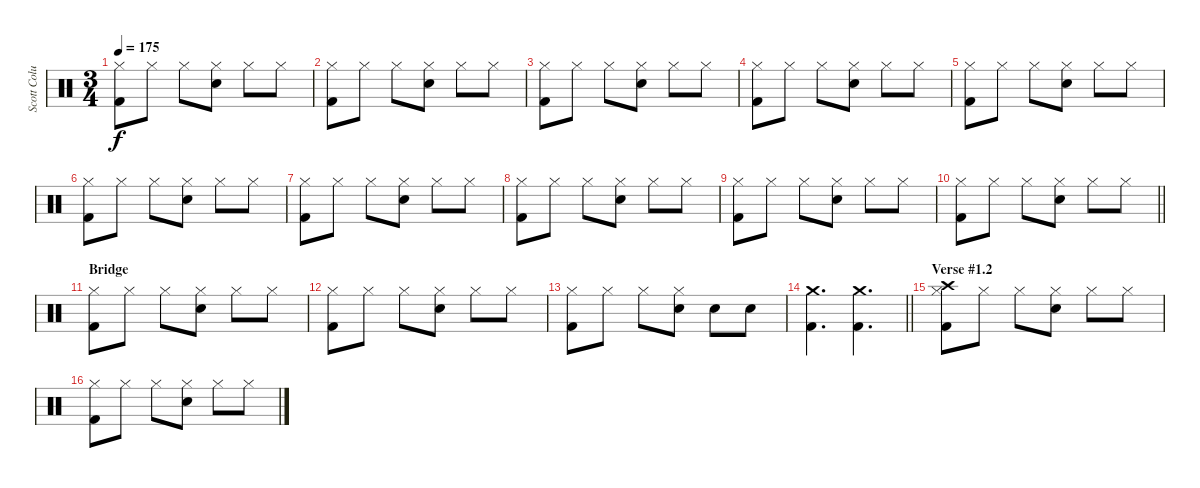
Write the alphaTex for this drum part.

\track ("Scott Columbus" "Scott Colu") {instrument percussion}
\staff {score}
\articulation defaults
\ts (3 4)
\tempo 175
\clef neutral
\ks c
("Kick (hit) 2" "Hi-Hat (closed)").8{dy f} "Hi-Hat (closed)".8 "Hi-Hat (closed)".8 ("Snare (hit) 2" "Hi-Hat (closed)").8 "Hi-Hat (closed)".8 "Hi-Hat (closed)".8 |
("Kick (hit) 2" "Hi-Hat (closed)").8 "Hi-Hat (closed)".8 "Hi-Hat (closed)".8 ("Snare (hit) 2" "Hi-Hat (closed)").8 "Hi-Hat (closed)".8 "Hi-Hat (closed)".8 |
("Kick (hit) 2" "Hi-Hat (closed)").8 "Hi-Hat (closed)".8 "Hi-Hat (closed)".8 ("Snare (hit) 2" "Hi-Hat (closed)").8 "Hi-Hat (closed)".8 "Hi-Hat (closed)".8 |
("Kick (hit) 2" "Hi-Hat (closed)").8 "Hi-Hat (closed)".8 "Hi-Hat (closed)".8 ("Snare (hit) 2" "Hi-Hat (closed)").8 "Hi-Hat (closed)".8 "Hi-Hat (closed)".8 |
("Kick (hit) 2" "Hi-Hat (closed)").8 "Hi-Hat (closed)".8 "Hi-Hat (closed)".8 ("Snare (hit) 2" "Hi-Hat (closed)").8 "Hi-Hat (closed)".8 "Hi-Hat (closed)".8 |
("Kick (hit) 2" "Hi-Hat (closed)").8 "Hi-Hat (closed)".8 "Hi-Hat (closed)".8 ("Snare (hit) 2" "Hi-Hat (closed)").8 "Hi-Hat (closed)".8 "Hi-Hat (closed)".8 |
("Kick (hit) 2" "Hi-Hat (closed)").8 "Hi-Hat (closed)".8 "Hi-Hat (closed)".8 ("Snare (hit) 2" "Hi-Hat (closed)").8 "Hi-Hat (closed)".8 "Hi-Hat (closed)".8 |
("Kick (hit) 2" "Hi-Hat (closed)").8 "Hi-Hat (closed)".8 "Hi-Hat (closed)".8 ("Snare (hit) 2" "Hi-Hat (closed)").8 "Hi-Hat (closed)".8 "Hi-Hat (closed)".8 |
("Kick (hit) 2" "Hi-Hat (closed)").8 "Hi-Hat (closed)".8 "Hi-Hat (closed)".8 ("Snare (hit) 2" "Hi-Hat (closed)").8 "Hi-Hat (closed)".8 "Hi-Hat (closed)".8 |
\barLineRight lightlight
("Kick (hit) 2" "Hi-Hat (closed)").8 "Hi-Hat (closed)".8 "Hi-Hat (closed)".8 ("Snare (hit) 2" "Hi-Hat (closed)").8 "Hi-Hat (closed)".8 "Hi-Hat (closed)".8 |
\section ("" "Bridge")
("Kick (hit) 2" "Hi-Hat (closed)").8 "Hi-Hat (closed)".8 "Hi-Hat (closed)".8 ("Snare (hit) 2" "Hi-Hat (closed)").8 "Hi-Hat (closed)".8 "Hi-Hat (closed)".8 |
("Kick (hit) 2" "Hi-Hat (closed)").8 "Hi-Hat (closed)".8 "Hi-Hat (closed)".8 ("Snare (hit) 2" "Hi-Hat (closed)").8 "Hi-Hat (closed)".8 "Hi-Hat (closed)".8 |
("Kick (hit) 2" "Hi-Hat (closed)").8 "Hi-Hat (closed)".8 "Hi-Hat (closed)".8 ("Snare (hit) 2" "Hi-Hat (closed)").8 "Snare (hit) 2".8 "Snare (hit) 2".8 |
\barLineRight lightlight
("Kick (hit) 2" "Crash medium (hit)").4{d} ("Kick (hit) 2" "Crash medium (hit)").4{d} |
\section ("" "Verse #1.2")
("Kick (hit) 2" "Hi-Hat (closed)" "Crash high (hit)").8 "Hi-Hat (closed)".8 "Hi-Hat (closed)".8 ("Snare (hit) 2" "Hi-Hat (closed)").8 "Hi-Hat (closed)".8 "Hi-Hat (closed)".8 |
("Kick (hit) 2" "Hi-Hat (closed)").8 "Hi-Hat (closed)".8 "Hi-Hat (closed)".8 ("Snare (hit) 2" "Hi-Hat (closed)").8 "Hi-Hat (closed)".8 "Hi-Hat (closed)".8
